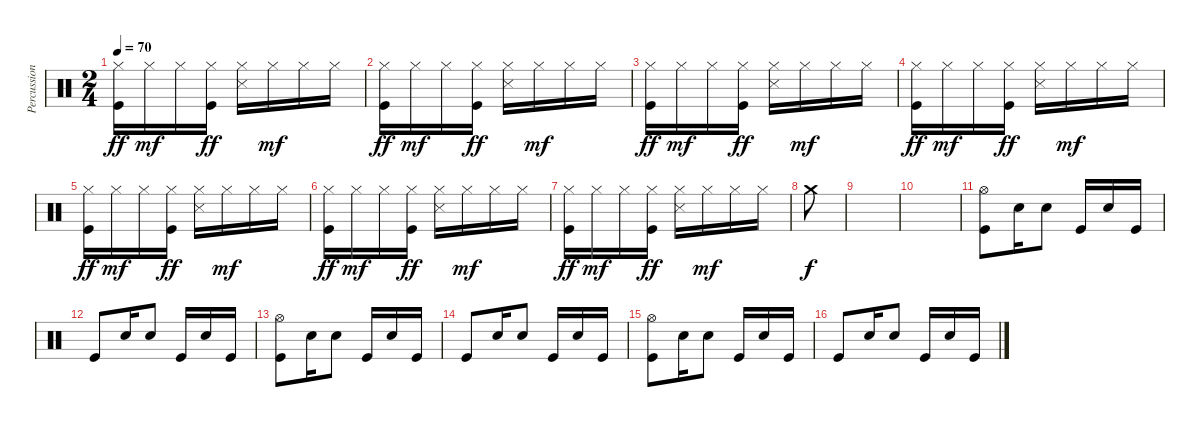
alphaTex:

\track ("Percussions" "Percussion") {instrument percussion}
\staff {score}
\articulation defaults
\ts (2 4)
\tempo 70
\clef neutral
\ks c
("Hi-Hat (closed)" "Kick (hit)").16{dy ff} "Hi-Hat (closed)".16{dy mf} "Hi-Hat (closed)".16 ("Hi-Hat (closed)" "Kick (hit)").16{dy ff} ("Hi-Hat (closed)" "Snare (side stick) 3").16 "Hi-Hat (closed)".16{dy mf} "Hi-Hat (closed)".16 "Hi-Hat (closed)".16 |
("Hi-Hat (closed)" "Kick (hit)").16{dy ff} "Hi-Hat (closed)".16{dy mf} "Hi-Hat (closed)".16 ("Hi-Hat (closed)" "Kick (hit)").16{dy ff} ("Hi-Hat (closed)" "Snare (side stick) 3").16 "Hi-Hat (closed)".16{dy mf} "Hi-Hat (closed)".16 "Hi-Hat (closed)".16 |
("Hi-Hat (closed)" "Kick (hit)").16{dy ff} "Hi-Hat (closed)".16{dy mf} "Hi-Hat (closed)".16 ("Hi-Hat (closed)" "Kick (hit)").16{dy ff} ("Hi-Hat (closed)" "Snare (side stick) 3").16 "Hi-Hat (closed)".16{dy mf} "Hi-Hat (closed)".16 "Hi-Hat (closed)".16 |
("Hi-Hat (closed)" "Kick (hit)").16{dy ff} "Hi-Hat (closed)".16{dy mf} "Hi-Hat (closed)".16 ("Hi-Hat (closed)" "Kick (hit)").16{dy ff} ("Hi-Hat (closed)" "Snare (side stick) 3").16 "Hi-Hat (closed)".16{dy mf} "Hi-Hat (closed)".16 "Hi-Hat (closed)".16 |
("Hi-Hat (closed)" "Kick (hit)").16{dy ff} "Hi-Hat (closed)".16{dy mf} "Hi-Hat (closed)".16 ("Hi-Hat (closed)" "Kick (hit)").16{dy ff} ("Hi-Hat (closed)" "Snare (side stick) 3").16 "Hi-Hat (closed)".16{dy mf} "Hi-Hat (closed)".16 "Hi-Hat (closed)".16 |
("Hi-Hat (closed)" "Kick (hit)").16{dy ff} "Hi-Hat (closed)".16{dy mf} "Hi-Hat (closed)".16 ("Hi-Hat (closed)" "Kick (hit)").16{dy ff} ("Hi-Hat (closed)" "Snare (side stick) 3").16 "Hi-Hat (closed)".16{dy mf} "Hi-Hat (closed)".16 "Hi-Hat (closed)".16 |
("Hi-Hat (closed)" "Kick (hit)").16{dy ff} "Hi-Hat (closed)".16{dy mf} "Hi-Hat (closed)".16 ("Hi-Hat (closed)" "Kick (hit)").16{dy ff} ("Hi-Hat (closed)" "Snare (side stick) 3").16 "Hi-Hat (closed)".16{dy mf} "Hi-Hat (closed)".16 "Hi-Hat (closed)".16 |
"Crash medium (hit)".8{dy f} |
|
|
("Hi-Hat (open)" "Kick (hit)").8 "Electric Snare (hit)".16 "Electric Snare (hit)".8 "Kick (hit)".16 "Electric Snare (hit)".16 "Kick (hit)".16 |
"Kick (hit)".8 "Electric Snare (hit)".16 "Electric Snare (hit)".8 "Kick (hit)".16 "Electric Snare (hit)".16 "Kick (hit)".16 |
("Hi-Hat (open)" "Kick (hit)").8 "Electric Snare (hit)".16 "Electric Snare (hit)".8 "Kick (hit)".16 "Electric Snare (hit)".16 "Kick (hit)".16 |
"Kick (hit)".8 "Electric Snare (hit)".16 "Electric Snare (hit)".8 "Kick (hit)".16 "Electric Snare (hit)".16 "Kick (hit)".16 |
("Hi-Hat (open)" "Kick (hit)").8 "Electric Snare (hit)".16 "Electric Snare (hit)".8 "Kick (hit)".16 "Electric Snare (hit)".16 "Kick (hit)".16 |
"Kick (hit)".8 "Electric Snare (hit)".16 "Electric Snare (hit)".8 "Kick (hit)".16 "Electric Snare (hit)".16 "Kick (hit)".16
